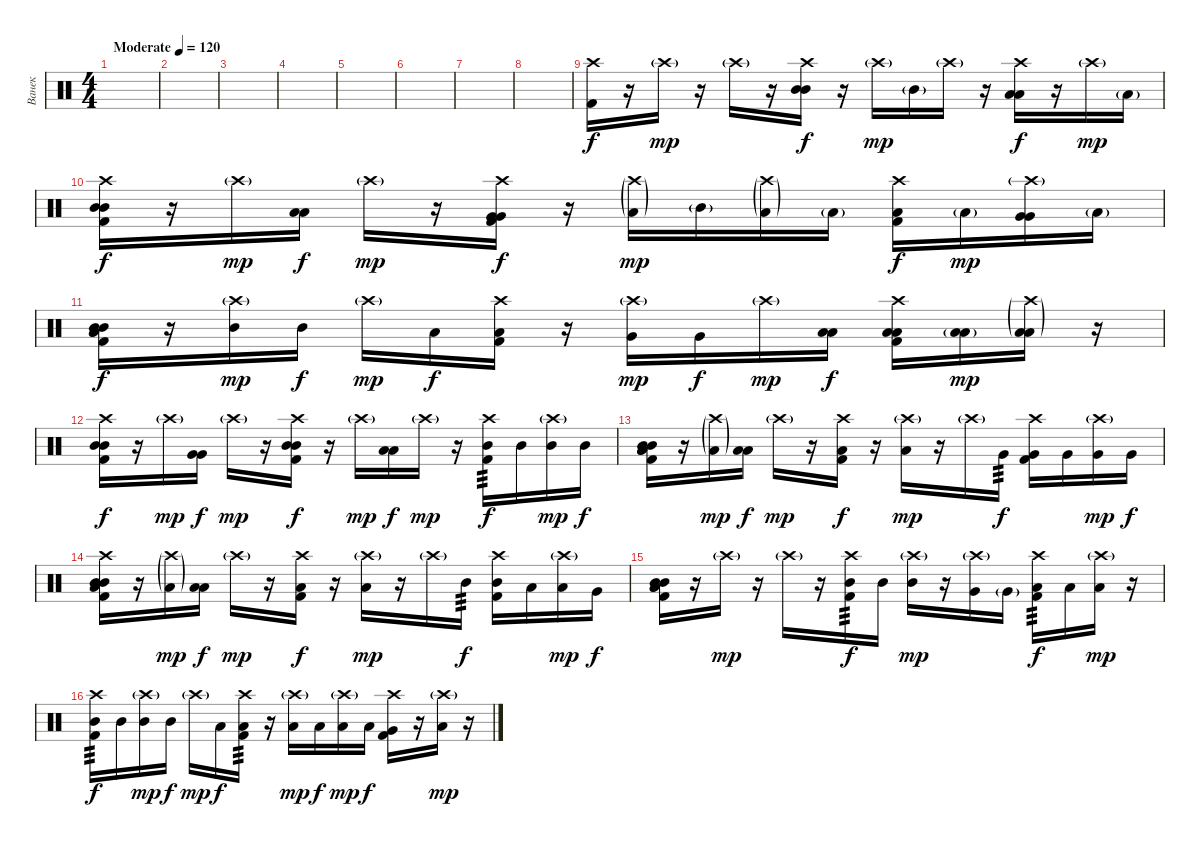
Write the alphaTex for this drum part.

\track ("Ванек" "Ванек") {instrument percussion}
\staff {score}
\articulation defaults
\ts (4 4)
\tempo (120 "Moderate")
\clef neutral
\ks c
|
|
|
|
|
|
|
|
("Crash high (hit)" "Kick (hit) 2").16 r.16 "Crash high (hit)"{g}.16{dy mp} r.16 "Crash high (hit)"{g}.16 r.16 ("Crash high (hit)" "Mid Tom (hit)" "Mid Tom (hit)").16{dy f} r.16 "Crash high (hit)"{g}.16{dy mp} "Mid Tom (hit)"{g}.16 "Crash high (hit)"{g}.16 r.16 ("Crash high (hit)" "Low Tom (hit)" "Low Tom (hit)").16{dy f} r.16 "Crash high (hit)"{g}.16{dy mp} "Low Tom (hit)"{g}.16 |
("Crash high (hit)" "Mid Tom (hit)" "Mid Tom (hit)" "Kick (hit) 2").16{dy f} r.16 "Crash high (hit)"{g}.16{dy mp} ("Low Tom (hit)" "Low Tom (hit)").16{dy f} "Crash high (hit)"{g}.16{dy mp} r.16 ("Crash high (hit)" "Very Low Tom (hit)" "Very Low Tom (hit)" "Kick (hit) 2").16{dy f} r.16 ("Crash high (hit)"{g} "Low Floor Tom (hit)"{g}).16{dy mp} "Mid Tom (hit)"{g}.16 ("Crash high (hit)"{g} "Low Floor Tom (hit)"{g}).16 "Low Tom (hit)"{g}.16 ("Crash high (hit)" "Low Floor Tom (hit)" "Kick (hit) 2").16{dy f} "Low Floor Tom (hit)"{g}.16{dy mp} ("Crash high (hit)"{g} "Very Low Tom (hit)" "Very Low Tom (hit)").16 "Low Floor Tom (hit)"{g}.16 |
("Low Tom (hit)" "Mid Tom (hit)" "Mid Tom (hit)" "Low Floor Tom (hit)" "Kick (hit) 2").16{dy f} r.16 ("Crash high (hit)"{g} "Mid Tom (hit)").16{dy mp} "Mid Tom (hit)".16{dy f} "Crash high (hit)"{g}.16{dy mp} "Low Tom (hit)".16{dy f} ("Crash high (hit)" "Low Tom (hit)" "Kick (hit) 2").16 r.16 ("Crash high (hit)"{g} "Very Low Tom (hit)").16{dy mp} "Very Low Tom (hit)".16{dy f} "Crash high (hit)"{g}.16{dy mp} ("Low Floor Tom (hit)" "Low Floor Tom (hit)").16{dy f} ("Crash high (hit)" "Low Floor Tom (hit)" "Low Floor Tom (hit)" "Kick (hit) 2").16 ("Low Floor Tom (hit)"{g} "Low Floor Tom (hit)"{g}).16{dy mp} ("Crash high (hit)"{g} "Low Floor Tom (hit)"{g} "Low Floor Tom (hit)"{g}).16 r.16 |
("Crash high (hit)" "Mid Tom (hit)" "Mid Tom (hit)" "Kick (hit) 2").16{dy f} r.16 "Crash high (hit)"{g}.16{dy mp} ("Very Low Tom (hit)" "Very Low Tom (hit)").16{dy f} "Crash high (hit)"{g}.16{dy mp} r.16 ("Crash high (hit)" "Mid Tom (hit)" "Mid Tom (hit)" "Kick (hit) 2").16{dy f} r.16 "Crash high (hit)"{g}.16{dy mp} ("Low Floor Tom (hit)" "Low Floor Tom (hit)").16{dy f} "Crash high (hit)"{g}.16{dy mp} r.16 ("Crash high (hit)" "Mid Tom (hit)" "Kick (hit) 2").16{tp 3 dy f} "Mid Tom (hit)".16 ("Crash high (hit)"{g} "Mid Tom (hit)").16{dy mp} "Mid Tom (hit)".16{dy f} |
("Low Tom (hit)" "Mid Tom (hit)" "Mid Tom (hit)" "Low Floor Tom (hit)" "Kick (hit) 2").16 r.16 ("Crash high (hit)"{g} "Low Floor Tom (hit)"{g}).16{dy mp} ("Low Floor Tom (hit)" "Low Floor Tom (hit)").16{dy f} "Crash high (hit)"{g}.16{dy mp} r.16 ("Crash high (hit)" "Low Floor Tom (hit)" "Kick (hit) 2").16{dy f} r.16 ("Crash high (hit)"{g} "Low Floor Tom (hit)").16{dy mp} r.16 "Crash high (hit)"{g}.16 "Very Low Tom (hit)".16{tp 3 dy f} ("Crash high (hit)" "Very Low Tom (hit)" "Kick (hit) 2").16 "Very Low Tom (hit)".16 ("Crash high (hit)"{g} "Very Low Tom (hit)").16{dy mp} "Very Low Tom (hit)".16{dy f} |
("Crash high (hit)" "Mid Tom (hit)" "Mid Tom (hit)" "Low Floor Tom (hit)" "Kick (hit) 2").16 r.16 ("Crash high (hit)"{g} "Low Floor Tom (hit)"{g}).16{dy mp} ("Low Floor Tom (hit)" "Low Floor Tom (hit)").16{dy f} "Crash high (hit)"{g}.16{dy mp} r.16 ("Crash high (hit)" "Low Floor Tom (hit)" "Kick (hit) 2").16{dy f} r.16 ("Crash high (hit)"{g} "Low Floor Tom (hit)").16{dy mp} r.16 "Crash high (hit)"{g}.16 "Mid Tom (hit)".16{tp 3 dy f} ("Crash high (hit)" "Mid Tom (hit)" "Kick (hit) 2").16 "Low Tom (hit)".16 ("Crash high (hit)"{g} "Low Tom (hit)").16{dy mp} "Very Low Tom (hit)".16{dy f} |
("Low Tom (hit)" "Mid Tom (hit)" "Mid Tom (hit)" "Low Floor Tom (hit)" "Kick (hit) 2").16 r.16 "Crash high (hit)"{g}.16{dy mp} r.16 "Crash high (hit)"{g}.16 r.16 ("Crash high (hit)" "Mid Tom (hit)" "Kick (hit) 2").16{tp 3 dy f} "Mid Tom (hit)".16 ("Crash high (hit)"{g} "Mid Tom (hit)").16{dy mp} r.16 ("Crash high (hit)"{g} "Very Low Tom (hit)").16 "Very Low Tom (hit)"{g}.16 ("Crash high (hit)" "Low Tom (hit)" "Kick (hit) 2").16{tp 3 dy f} "Low Tom (hit)".16 ("Crash high (hit)"{g} "Low Tom (hit)").16{dy mp} r.16 |
("Crash high (hit)" "Mid Tom (hit)" "Kick (hit) 2").16{tp 3 dy f} "Mid Tom (hit)".16 ("Crash high (hit)"{g} "Mid Tom (hit)").16{dy mp} "Mid Tom (hit)".16{dy f} "Crash high (hit)"{g}.16{dy mp} "Low Floor Tom (hit)".16{dy f} ("Crash high (hit)" "Low Tom (hit)" "Kick (hit) 2").16{tp 3} r.16 ("Crash high (hit)"{g} "Low Tom (hit)").16{dy mp} "Low Tom (hit)".16{dy f} ("Crash high (hit)"{g} "Low Tom (hit)").16{dy mp} "Low Floor Tom (hit)".16{dy f} ("Crash high (hit)" "Very Low Tom (hit)" "Kick (hit) 2").16 r.16 ("Crash high (hit)"{g} "Low Floor Tom (hit)").16{dy mp} r.16
